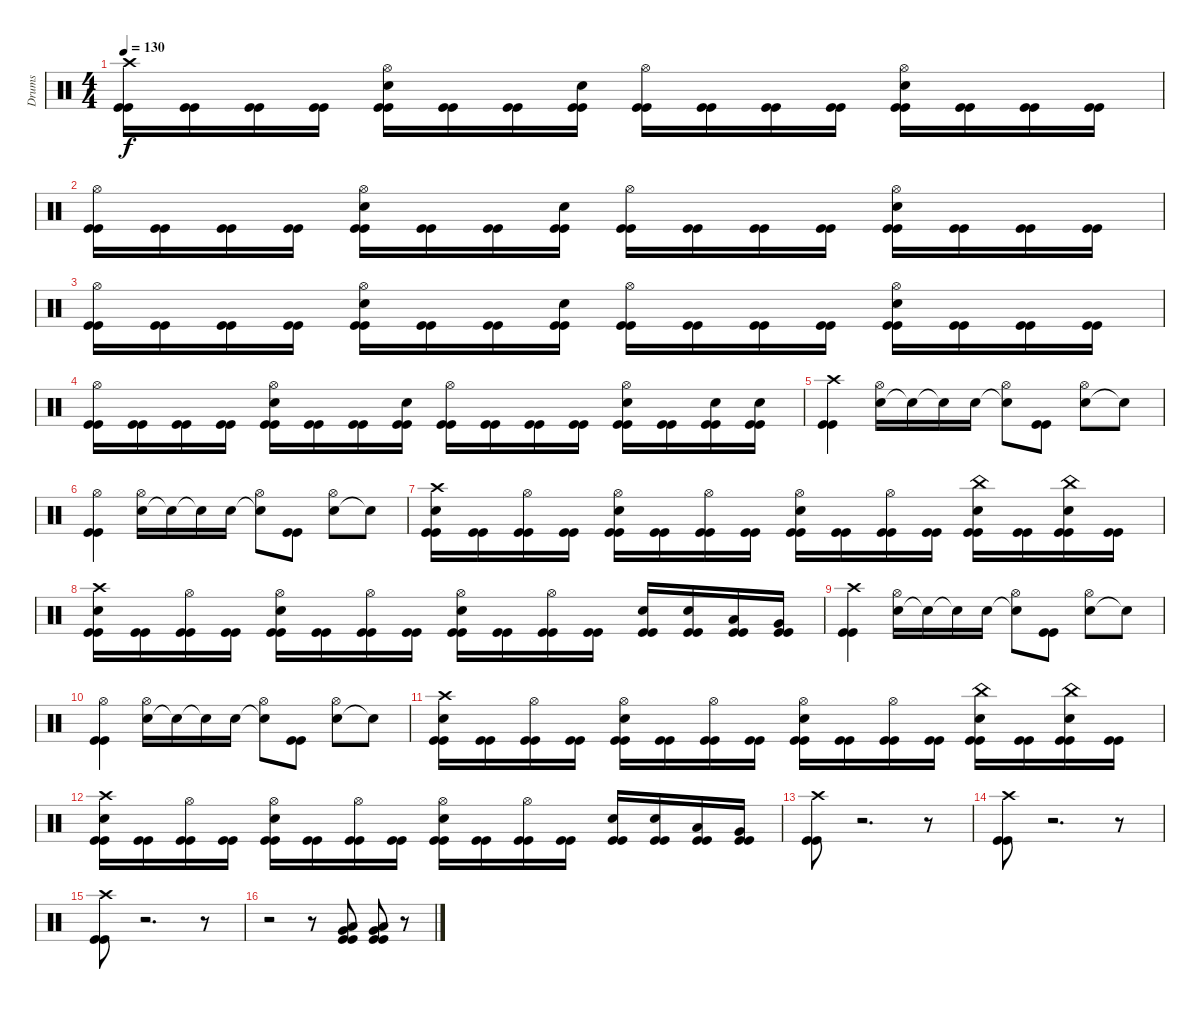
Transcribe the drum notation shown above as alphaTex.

\track ("Drums" "Drums") {instrument percussion}
\staff {score}
\articulation defaults
\ts (4 4)
\tempo 130
\clef neutral
\ks c
("Kick (hit)" "Kick (hit)" "Crash high (hit)").16{dy f} ("Kick (hit)" "Kick (hit)").16 ("Kick (hit)" "Kick (hit)").16 ("Kick (hit)" "Kick (hit)").16 ("Kick (hit)" "Kick (hit)" "Snare (hit) 2" "Hi-Hat (open)").16 ("Kick (hit)" "Kick (hit)").16 ("Kick (hit)" "Kick (hit)").16 ("Kick (hit)" "Kick (hit)" "Snare (hit) 2").16 ("Kick (hit)" "Kick (hit)" "Hi-Hat (open)").16 ("Kick (hit)" "Kick (hit)").16 ("Kick (hit)" "Kick (hit)").16 ("Kick (hit)" "Kick (hit)").16 ("Kick (hit)" "Kick (hit)" "Snare (hit) 2" "Hi-Hat (open)").16 ("Kick (hit)" "Kick (hit)").16 ("Kick (hit)" "Kick (hit)").16 ("Kick (hit)" "Kick (hit)").16 |
("Kick (hit)" "Kick (hit)" "Hi-Hat (open)").16 ("Kick (hit)" "Kick (hit)").16 ("Kick (hit)" "Kick (hit)").16 ("Kick (hit)" "Kick (hit)").16 ("Kick (hit)" "Kick (hit)" "Snare (hit) 2" "Hi-Hat (open)").16 ("Kick (hit)" "Kick (hit)").16 ("Kick (hit)" "Kick (hit)").16 ("Kick (hit)" "Kick (hit)" "Snare (hit) 2").16 ("Kick (hit)" "Kick (hit)" "Hi-Hat (open)").16 ("Kick (hit)" "Kick (hit)").16 ("Kick (hit)" "Kick (hit)").16 ("Kick (hit)" "Kick (hit)").16 ("Kick (hit)" "Kick (hit)" "Snare (hit) 2" "Hi-Hat (open)").16 ("Kick (hit)" "Kick (hit)").16 ("Kick (hit)" "Kick (hit)").16 ("Kick (hit)" "Kick (hit)").16 |
("Kick (hit)" "Kick (hit)" "Hi-Hat (open)").16 ("Kick (hit)" "Kick (hit)").16 ("Kick (hit)" "Kick (hit)").16 ("Kick (hit)" "Kick (hit)").16 ("Kick (hit)" "Kick (hit)" "Snare (hit) 2" "Hi-Hat (open)").16 ("Kick (hit)" "Kick (hit)").16 ("Kick (hit)" "Kick (hit)").16 ("Kick (hit)" "Kick (hit)" "Snare (hit) 2").16 ("Kick (hit)" "Kick (hit)" "Hi-Hat (open)").16 ("Kick (hit)" "Kick (hit)").16 ("Kick (hit)" "Kick (hit)").16 ("Kick (hit)" "Kick (hit)").16 ("Kick (hit)" "Kick (hit)" "Snare (hit) 2" "Hi-Hat (open)").16 ("Kick (hit)" "Kick (hit)").16 ("Kick (hit)" "Kick (hit)").16 ("Kick (hit)" "Kick (hit)").16 |
("Kick (hit)" "Kick (hit)" "Hi-Hat (open)").16 ("Kick (hit)" "Kick (hit)").16 ("Kick (hit)" "Kick (hit)").16 ("Kick (hit)" "Kick (hit)").16 ("Kick (hit)" "Kick (hit)" "Snare (hit) 2" "Hi-Hat (open)").16 ("Kick (hit)" "Kick (hit)").16 ("Kick (hit)" "Kick (hit)").16 ("Kick (hit)" "Kick (hit)" "Snare (hit) 2").16 ("Kick (hit)" "Kick (hit)" "Hi-Hat (open)").16 ("Kick (hit)" "Kick (hit)").16 ("Kick (hit)" "Kick (hit)").16 ("Kick (hit)" "Kick (hit)").16 ("Kick (hit)" "Kick (hit)" "Snare (hit) 2" "Hi-Hat (open)").16 ("Kick (hit)" "Kick (hit)").16 ("Kick (hit)" "Kick (hit)" "Snare (hit) 2").16 ("Kick (hit)" "Kick (hit)" "Snare (hit) 2").16 |
("Kick (hit)" "Kick (hit)" "Crash high (hit)").4 ("Snare (hit) 2" "Hi-Hat (open)").16 "Snare (hit)"{t}.16 "Snare (hit)"{t}.16 "Snare (hit) 2".16 ("Snare (hit)"{t} "Hi-Hat (open)").8 ("Kick (hit)" "Kick (hit)").8 ("Snare (hit) 2" "Hi-Hat (open)").8 "Snare (hit)"{t}.8 |
("Kick (hit)" "Kick (hit)" "Hi-Hat (open)").4 ("Snare (hit) 2" "Hi-Hat (open)").16 "Snare (hit)"{t}.16 "Snare (hit)"{t}.16 "Snare (hit) 2".16 ("Snare (hit)"{t} "Hi-Hat (open)").8 ("Kick (hit)" "Kick (hit)").8 ("Snare (hit) 2" "Hi-Hat (open)").8 "Snare (hit)"{t}.8 |
("Kick (hit)" "Kick (hit)" "Snare (hit) 2" "Crash high (hit)").16 ("Kick (hit)" "Kick (hit)").16 ("Kick (hit)" "Kick (hit)" "Hi-Hat (open)").16 ("Kick (hit)" "Kick (hit)").16 ("Kick (hit)" "Kick (hit)" "Snare (hit) 2" "Hi-Hat (open)").16 ("Kick (hit)" "Kick (hit)").16 ("Kick (hit)" "Kick (hit)" "Hi-Hat (open)").16 ("Kick (hit)" "Kick (hit)").16 ("Kick (hit)" "Kick (hit)" "Snare (hit) 2" "Hi-Hat (open)").16 ("Kick (hit)" "Kick (hit)").16 ("Kick (hit)" "Kick (hit)" "Hi-Hat (open)").16 ("Kick (hit)" "Kick (hit)").16 ("Kick (hit)" "Kick (hit)" "Snare (hit) 2" "China (hit)").16 ("Kick (hit)" "Kick (hit)").16 ("Kick (hit)" "Kick (hit)" "Snare (hit) 2" "China (hit)").16 ("Kick (hit)" "Kick (hit)").16 |
("Kick (hit)" "Kick (hit)" "Snare (hit) 2" "Crash high (hit)").16 ("Kick (hit)" "Kick (hit)").16 ("Kick (hit)" "Kick (hit)" "Hi-Hat (open)").16 ("Kick (hit)" "Kick (hit)").16 ("Kick (hit)" "Kick (hit)" "Snare (hit) 2" "Hi-Hat (open)").16 ("Kick (hit)" "Kick (hit)").16 ("Kick (hit)" "Kick (hit)" "Hi-Hat (open)").16 ("Kick (hit)" "Kick (hit)").16 ("Kick (hit)" "Kick (hit)" "Snare (hit) 2" "Hi-Hat (open)").16 ("Kick (hit)" "Kick (hit)").16 ("Kick (hit)" "Kick (hit)" "Hi-Hat (open)").16 ("Kick (hit)" "Kick (hit)").16 ("Kick (hit)" "Kick (hit)" "Snare (hit) 2").16 ("Kick (hit)" "Kick (hit)" "Snare (hit) 2").16 ("Kick (hit)" "Kick (hit)" "Low Tom (hit)").16 ("Kick (hit)" "Kick (hit)" "Very Low Tom (hit)").16 |
("Kick (hit)" "Kick (hit)" "Crash high (hit)").4 ("Snare (hit) 2" "Hi-Hat (open)").16 "Snare (hit)"{t}.16 "Snare (hit)"{t}.16 "Snare (hit) 2".16 ("Snare (hit)"{t} "Hi-Hat (open)").8 ("Kick (hit)" "Kick (hit)").8 ("Snare (hit) 2" "Hi-Hat (open)").8 "Snare (hit)"{t}.8 |
("Kick (hit)" "Kick (hit)" "Hi-Hat (open)").4 ("Snare (hit) 2" "Hi-Hat (open)").16 "Snare (hit)"{t}.16 "Snare (hit)"{t}.16 "Snare (hit) 2".16 ("Snare (hit)"{t} "Hi-Hat (open)").8 ("Kick (hit)" "Kick (hit)").8 ("Snare (hit) 2" "Hi-Hat (open)").8 "Snare (hit)"{t}.8 |
("Kick (hit)" "Kick (hit)" "Snare (hit) 2" "Crash high (hit)").16 ("Kick (hit)" "Kick (hit)").16 ("Kick (hit)" "Kick (hit)" "Hi-Hat (open)").16 ("Kick (hit)" "Kick (hit)").16 ("Kick (hit)" "Kick (hit)" "Snare (hit) 2" "Hi-Hat (open)").16 ("Kick (hit)" "Kick (hit)").16 ("Kick (hit)" "Kick (hit)" "Hi-Hat (open)").16 ("Kick (hit)" "Kick (hit)").16 ("Kick (hit)" "Kick (hit)" "Snare (hit) 2" "Hi-Hat (open)").16 ("Kick (hit)" "Kick (hit)").16 ("Kick (hit)" "Kick (hit)" "Hi-Hat (open)").16 ("Kick (hit)" "Kick (hit)").16 ("Kick (hit)" "Kick (hit)" "Snare (hit) 2" "China (hit)").16 ("Kick (hit)" "Kick (hit)").16 ("Kick (hit)" "Kick (hit)" "Snare (hit) 2" "China (hit)").16 ("Kick (hit)" "Kick (hit)").16 |
("Kick (hit)" "Kick (hit)" "Snare (hit) 2" "Crash high (hit)").16 ("Kick (hit)" "Kick (hit)").16 ("Kick (hit)" "Kick (hit)" "Hi-Hat (open)").16 ("Kick (hit)" "Kick (hit)").16 ("Kick (hit)" "Kick (hit)" "Snare (hit) 2" "Hi-Hat (open)").16 ("Kick (hit)" "Kick (hit)").16 ("Kick (hit)" "Kick (hit)" "Hi-Hat (open)").16 ("Kick (hit)" "Kick (hit)").16 ("Kick (hit)" "Kick (hit)" "Snare (hit) 2" "Hi-Hat (open)").16 ("Kick (hit)" "Kick (hit)").16 ("Kick (hit)" "Kick (hit)" "Hi-Hat (open)").16 ("Kick (hit)" "Kick (hit)").16 ("Kick (hit)" "Kick (hit)" "Snare (hit) 2").16 ("Kick (hit)" "Kick (hit)" "Snare (hit) 2").16 ("Kick (hit)" "Kick (hit)" "Low Tom (hit)").16 ("Kick (hit)" "Kick (hit)" "Very Low Tom (hit)").16 |
("Kick (hit)" "Kick (hit)" "Crash high (hit)").8 r.2{d} r.8 |
("Kick (hit)" "Kick (hit)" "Crash high (hit)").8 r.2{d} r.8 |
("Kick (hit)" "Kick (hit)" "Crash high (hit)").8 r.2{d} r.8 |
r.2 r.8 ("Kick (hit)" "Kick (hit)" "Low Floor Tom (hit)" "Very Low Tom (hit)").8 ("Kick (hit)" "Kick (hit)" "Low Floor Tom (hit)" "Very Low Tom (hit)").8 r.8
